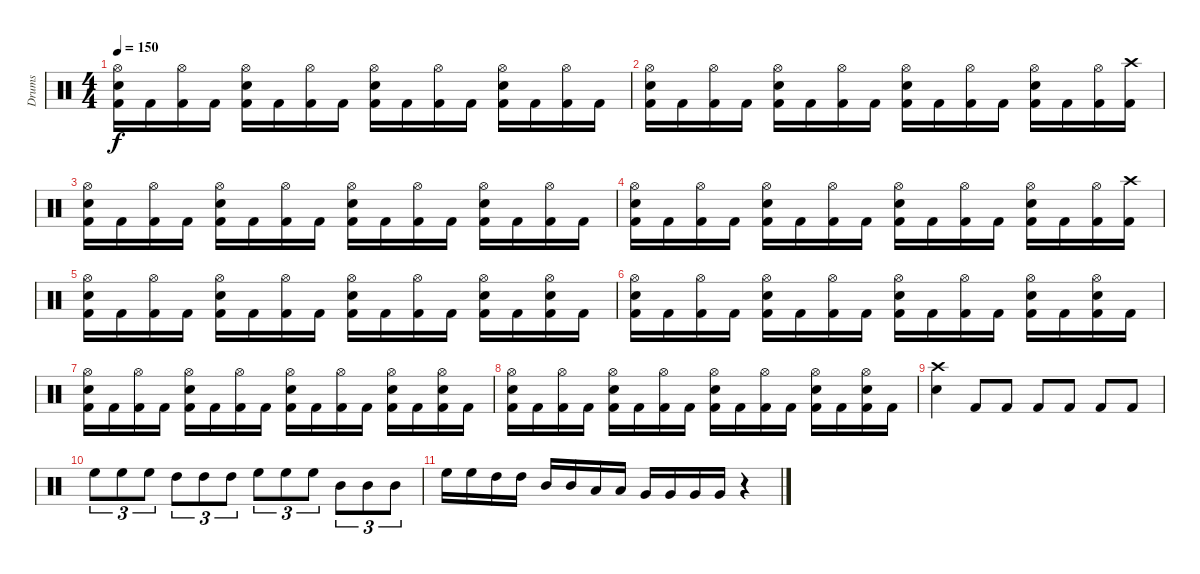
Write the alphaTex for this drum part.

\track ("Drums" "Drums") {instrument percussion}
\staff {score}
\articulation defaults
\ts (4 4)
\tempo 150
\clef neutral
\ks aminor
("Hi-Hat (open)" "Electric Snare (hit)" "Kick (hit) 2").16{dy f} "Kick (hit) 2".16 ("Hi-Hat (open)" "Kick (hit) 2").16 "Kick (hit) 2".16 ("Hi-Hat (open)" "Electric Snare (hit)" "Kick (hit) 2").16 "Kick (hit) 2".16 ("Hi-Hat (open)" "Kick (hit) 2").16 "Kick (hit) 2".16 ("Hi-Hat (open)" "Electric Snare (hit)" "Kick (hit) 2").16 "Kick (hit) 2".16 ("Hi-Hat (open)" "Kick (hit) 2").16 "Kick (hit) 2".16 ("Hi-Hat (open)" "Electric Snare (hit)" "Kick (hit) 2").16 "Kick (hit) 2".16 ("Hi-Hat (open)" "Kick (hit) 2").16 "Kick (hit) 2".16 |
("Hi-Hat (open)" "Electric Snare (hit)" "Kick (hit) 2").16 "Kick (hit) 2".16 ("Hi-Hat (open)" "Kick (hit) 2").16 "Kick (hit) 2".16 ("Hi-Hat (open)" "Electric Snare (hit)" "Kick (hit) 2").16 "Kick (hit) 2".16 ("Hi-Hat (open)" "Kick (hit) 2").16 "Kick (hit) 2".16 ("Hi-Hat (open)" "Electric Snare (hit)" "Kick (hit) 2").16 "Kick (hit) 2".16 ("Hi-Hat (open)" "Kick (hit) 2").16 "Kick (hit) 2".16 ("Hi-Hat (open)" "Electric Snare (hit)" "Kick (hit) 2").16 "Kick (hit) 2".16 ("Hi-Hat (open)" "Kick (hit) 2").16 ("Crash high (hit)" "Kick (hit) 2").16 |
("Hi-Hat (open)" "Electric Snare (hit)" "Kick (hit) 2").16 "Kick (hit) 2".16 ("Hi-Hat (open)" "Kick (hit) 2").16 "Kick (hit) 2".16 ("Hi-Hat (open)" "Electric Snare (hit)" "Kick (hit) 2").16 "Kick (hit) 2".16 ("Hi-Hat (open)" "Kick (hit) 2").16 "Kick (hit) 2".16 ("Hi-Hat (open)" "Electric Snare (hit)" "Kick (hit) 2").16 "Kick (hit) 2".16 ("Hi-Hat (open)" "Kick (hit) 2").16 "Kick (hit) 2".16 ("Hi-Hat (open)" "Electric Snare (hit)" "Kick (hit) 2").16 "Kick (hit) 2".16 ("Hi-Hat (open)" "Kick (hit) 2").16 "Kick (hit) 2".16 |
("Hi-Hat (open)" "Electric Snare (hit)" "Kick (hit) 2").16 "Kick (hit) 2".16 ("Hi-Hat (open)" "Kick (hit) 2").16 "Kick (hit) 2".16 ("Hi-Hat (open)" "Electric Snare (hit)" "Kick (hit) 2").16 "Kick (hit) 2".16 ("Hi-Hat (open)" "Kick (hit) 2").16 "Kick (hit) 2".16 ("Hi-Hat (open)" "Electric Snare (hit)" "Kick (hit) 2").16 "Kick (hit) 2".16 ("Hi-Hat (open)" "Kick (hit) 2").16 "Kick (hit) 2".16 ("Hi-Hat (open)" "Electric Snare (hit)" "Kick (hit) 2").16 "Kick (hit) 2".16 ("Hi-Hat (open)" "Kick (hit) 2").16 ("Crash high (hit)" "Kick (hit) 2").16 |
("Hi-Hat (open)" "Electric Snare (hit)" "Kick (hit) 2").16 "Kick (hit) 2".16 ("Hi-Hat (open)" "Kick (hit) 2").16 "Kick (hit) 2".16 ("Hi-Hat (open)" "Electric Snare (hit)" "Kick (hit) 2").16 "Kick (hit) 2".16 ("Hi-Hat (open)" "Kick (hit) 2").16 "Kick (hit) 2".16 ("Hi-Hat (open)" "Electric Snare (hit)" "Kick (hit) 2").16 "Kick (hit) 2".16 ("Hi-Hat (open)" "Kick (hit) 2").16 "Kick (hit) 2".16 ("Hi-Hat (open)" "Electric Snare (hit)" "Kick (hit) 2").16 "Kick (hit) 2".16 ("Hi-Hat (open)" "Electric Snare (hit)" "Kick (hit) 2").16 "Kick (hit) 2".16 |
("Hi-Hat (open)" "Electric Snare (hit)" "Kick (hit) 2").16 "Kick (hit) 2".16 ("Hi-Hat (open)" "Kick (hit) 2").16 "Kick (hit) 2".16 ("Hi-Hat (open)" "Electric Snare (hit)" "Kick (hit) 2").16 "Kick (hit) 2".16 ("Hi-Hat (open)" "Kick (hit) 2").16 "Kick (hit) 2".16 ("Hi-Hat (open)" "Electric Snare (hit)" "Kick (hit) 2").16 "Kick (hit) 2".16 ("Hi-Hat (open)" "Kick (hit) 2").16 "Kick (hit) 2".16 ("Hi-Hat (open)" "Electric Snare (hit)" "Kick (hit) 2").16 "Kick (hit) 2".16 ("Hi-Hat (open)" "Electric Snare (hit)" "Kick (hit) 2").16 "Kick (hit) 2".16 |
("Hi-Hat (open)" "Electric Snare (hit)" "Kick (hit) 2").16 "Kick (hit) 2".16 ("Hi-Hat (open)" "Kick (hit) 2").16 "Kick (hit) 2".16 ("Hi-Hat (open)" "Electric Snare (hit)" "Kick (hit) 2").16 "Kick (hit) 2".16 ("Hi-Hat (open)" "Kick (hit) 2").16 "Kick (hit) 2".16 ("Hi-Hat (open)" "Electric Snare (hit)" "Kick (hit) 2").16 "Kick (hit) 2".16 ("Hi-Hat (open)" "Kick (hit) 2").16 "Kick (hit) 2".16 ("Hi-Hat (open)" "Electric Snare (hit)" "Kick (hit) 2").16 "Kick (hit) 2".16 ("Hi-Hat (open)" "Electric Snare (hit)" "Kick (hit) 2").16 "Kick (hit) 2".16 |
("Hi-Hat (open)" "Electric Snare (hit)" "Kick (hit) 2").16 "Kick (hit) 2".16 ("Hi-Hat (open)" "Kick (hit) 2").16 "Kick (hit) 2".16 ("Hi-Hat (open)" "Electric Snare (hit)" "Kick (hit) 2").16 "Kick (hit) 2".16 ("Hi-Hat (open)" "Kick (hit) 2").16 "Kick (hit) 2".16 ("Hi-Hat (open)" "Electric Snare (hit)" "Kick (hit) 2").16 "Kick (hit) 2".16 ("Hi-Hat (open)" "Kick (hit) 2").16 "Kick (hit) 2".16 ("Hi-Hat (open)" "Electric Snare (hit)" "Kick (hit) 2").16 "Kick (hit) 2".16 ("Hi-Hat (open)" "Electric Snare (hit)" "Kick (hit) 2").16 "Kick (hit) 2".16 |
("Crash high (hit)" "Electric Snare (hit)").4 "Kick (hit) 2".8 "Kick (hit) 2".8 "Kick (hit) 2".8 "Kick (hit) 2".8 "Kick (hit) 2".8 "Kick (hit) 2".8 |
"High Floor Tom (hit)".8{tu (3 2)} "High Floor Tom (hit)".8{tu (3 2)} "High Floor Tom (hit)".8{tu (3 2)} "High Tom (hit)".8{tu (3 2)} "High Tom (hit)".8{tu (3 2)} "High Tom (hit)".8{tu (3 2)} "High Floor Tom (hit)".8{tu (3 2)} "High Floor Tom (hit)".8{tu (3 2)} "High Floor Tom (hit)".8{tu (3 2)} "Mid Tom (hit)".8{tu (3 2)} "Mid Tom (hit)".8{tu (3 2)} "Mid Tom (hit)".8{tu (3 2)} |
"High Floor Tom (hit)".16 "High Floor Tom (hit)".16 "High Tom (hit)".16 "High Tom (hit)".16 "Mid Tom (hit)".16 "Mid Tom (hit)".16 "Low Tom (hit)".16 "Low Tom (hit)".16 "Very Low Tom (hit)".16 "Very Low Tom (hit)".16 "Very Low Tom (hit)".16 "Very Low Tom (hit)".16 r.4
